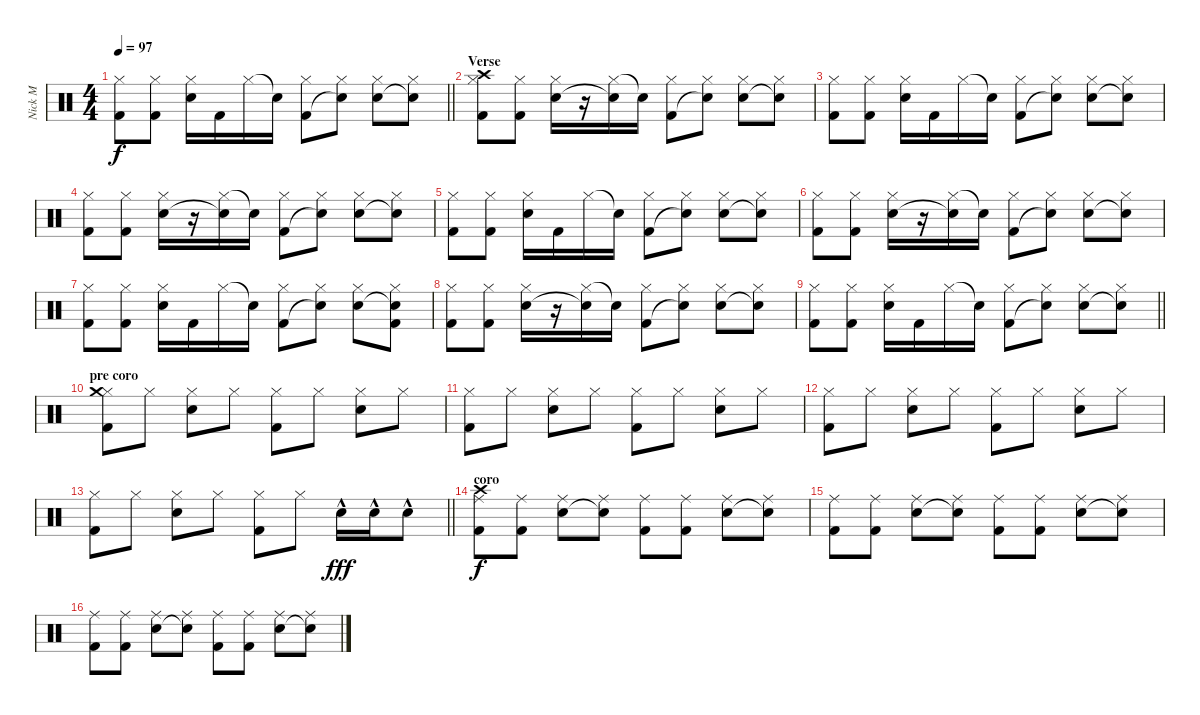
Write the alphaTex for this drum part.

\track ("Nick M" "Nick M") {instrument percussion}
\staff {score}
\articulation defaults
\ts (4 4)
\tempo 97
\clef neutral
\barLineRight lightlight
\ks c
("Hi-Hat (closed)" "Kick (hit) 2").8{dy f} ("Hi-Hat (closed)" "Kick (hit) 2").8 ("Hi-Hat (closed)" "Snare (hit) 2").16 "Kick (hit) 2".16 "Hi-Hat (closed)".16 "Snare (hit)"{t}.16 ("Hi-Hat (closed)" "Kick (hit) 2").8 ("Hi-Hat (closed)" "Snare (hit)"{t}).8 ("Hi-Hat (closed)" "Snare (hit) 2").8 ("Hi-Hat (closed)" "Snare (hit)"{t}).8 |
\section ("" "Verse")
("Hi-Hat (closed)" "Crash high (hit)" "Kick (hit) 2").8 ("Hi-Hat (closed)" "Kick (hit) 2").8 ("Hi-Hat (closed)" "Snare (hit) 2").16 r.16 ("Hi-Hat (closed)" "Snare (hit)"{t}).16 "Snare (hit)"{t}.16 ("Hi-Hat (closed)" "Kick (hit) 2").8 ("Hi-Hat (closed)" "Snare (hit)"{t}).8 ("Hi-Hat (closed)" "Snare (hit) 2").8 ("Hi-Hat (closed)" "Snare (hit)"{t}).8 |
("Hi-Hat (closed)" "Kick (hit) 2").8 ("Hi-Hat (closed)" "Kick (hit) 2").8 ("Hi-Hat (closed)" "Snare (hit) 2").16 "Kick (hit) 2".16 "Hi-Hat (closed)".16 "Snare (hit)"{t}.16 ("Hi-Hat (closed)" "Kick (hit) 2").8 ("Hi-Hat (closed)" "Snare (hit)"{t}).8 ("Hi-Hat (closed)" "Snare (hit) 2").8 ("Hi-Hat (closed)" "Snare (hit)"{t}).8 |
("Hi-Hat (closed)" "Kick (hit) 2").8 ("Hi-Hat (closed)" "Kick (hit) 2").8 ("Hi-Hat (closed)" "Snare (hit) 2").16 r.16 ("Hi-Hat (closed)" "Snare (hit)"{t}).16 "Snare (hit)"{t}.16 ("Hi-Hat (closed)" "Kick (hit) 2").8 ("Hi-Hat (closed)" "Snare (hit)"{t}).8 ("Hi-Hat (closed)" "Snare (hit) 2").8 ("Hi-Hat (closed)" "Snare (hit)"{t}).8 |
("Hi-Hat (closed)" "Kick (hit) 2").8 ("Hi-Hat (closed)" "Kick (hit) 2").8 ("Hi-Hat (closed)" "Snare (hit) 2").16 "Kick (hit) 2".16 "Hi-Hat (closed)".16 "Snare (hit)"{t}.16 ("Hi-Hat (closed)" "Kick (hit) 2").8 ("Hi-Hat (closed)" "Snare (hit)"{t}).8 ("Hi-Hat (closed)" "Snare (hit) 2").8 ("Hi-Hat (closed)" "Snare (hit)"{t}).8 |
("Hi-Hat (closed)" "Kick (hit) 2").8 ("Hi-Hat (closed)" "Kick (hit) 2").8 ("Hi-Hat (closed)" "Snare (hit) 2").16 r.16 ("Hi-Hat (closed)" "Snare (hit)"{t}).16 "Snare (hit)"{t}.16 ("Hi-Hat (closed)" "Kick (hit) 2").8 ("Hi-Hat (closed)" "Snare (hit)"{t}).8 ("Hi-Hat (closed)" "Snare (hit) 2").8 ("Hi-Hat (closed)" "Snare (hit)"{t}).8 |
("Hi-Hat (closed)" "Kick (hit) 2").8 ("Hi-Hat (closed)" "Kick (hit) 2").8 ("Hi-Hat (closed)" "Snare (hit) 2").16 "Kick (hit) 2".16 "Hi-Hat (closed)".16 "Snare (hit)"{t}.16 ("Hi-Hat (closed)" "Kick (hit) 2").8 ("Hi-Hat (closed)" "Snare (hit)"{t}).8 ("Hi-Hat (closed)" "Snare (hit) 2").8 ("Hi-Hat (closed)" "Snare (hit)"{t} "Kick (hit) 2").8 |
("Hi-Hat (closed)" "Kick (hit) 2").8 ("Hi-Hat (closed)" "Kick (hit) 2").8 ("Hi-Hat (closed)" "Snare (hit) 2").16 r.16 ("Hi-Hat (closed)" "Snare (hit)"{t}).16 "Snare (hit)"{t}.16 ("Hi-Hat (closed)" "Kick (hit) 2").8 ("Hi-Hat (closed)" "Snare (hit)"{t}).8 ("Hi-Hat (closed)" "Snare (hit) 2").8 ("Hi-Hat (closed)" "Snare (hit)"{t}).8 |
\barLineRight lightlight
("Hi-Hat (closed)" "Kick (hit) 2").8 ("Hi-Hat (closed)" "Kick (hit) 2").8 ("Hi-Hat (closed)" "Snare (hit) 2").16 "Kick (hit) 2".16 "Hi-Hat (closed)".16 "Snare (hit)"{t}.16 ("Hi-Hat (closed)" "Kick (hit) 2").8 ("Hi-Hat (closed)" "Snare (hit)"{t}).8 ("Hi-Hat (closed)" "Snare (hit) 2").8 ("Hi-Hat (closed)" "Snare (hit)"{t}).8 |
\section ("" "pre coro")
("Hi-Hat (closed)" "Crash medium (hit)" "Kick (hit) 2").8 "Hi-Hat (closed)".8 ("Hi-Hat (closed)" "Snare (hit) 2").8 "Hi-Hat (closed)".8 ("Hi-Hat (closed)" "Kick (hit) 2").8 "Hi-Hat (closed)".8 ("Hi-Hat (closed)" "Snare (hit) 2").8 "Hi-Hat (closed)".8 |
("Hi-Hat (closed)" "Kick (hit) 2").8 "Hi-Hat (closed)".8 ("Hi-Hat (closed)" "Snare (hit) 2").8 "Hi-Hat (closed)".8 ("Hi-Hat (closed)" "Kick (hit) 2").8 "Hi-Hat (closed)".8 ("Hi-Hat (closed)" "Snare (hit) 2").8 "Hi-Hat (closed)".8 |
("Hi-Hat (closed)" "Kick (hit) 2").8 "Hi-Hat (closed)".8 ("Hi-Hat (closed)" "Snare (hit) 2").8 "Hi-Hat (closed)".8 ("Hi-Hat (closed)" "Kick (hit) 2").8 "Hi-Hat (closed)".8 ("Hi-Hat (closed)" "Snare (hit) 2").8 "Hi-Hat (closed)".8 |
\barLineRight lightlight
("Hi-Hat (closed)" "Kick (hit) 2").8 "Hi-Hat (closed)".8 ("Hi-Hat (closed)" "Snare (hit) 2").8 "Hi-Hat (closed)".8 ("Hi-Hat (closed)" "Kick (hit) 2").8 "Hi-Hat (closed)".8 "Snare (hit) 2"{hac}.16{dy fff} "Snare (hit) 2"{hac}.16 "Snare (hit) 2"{hac}.8 |
\section ("" "coro")
("Ride (middle)" "Crash high (hit)" "Kick (hit) 2").8{dy f} ("Ride (middle)" "Kick (hit) 2").8 ("Ride (middle)" "Snare (hit) 2").8 ("Ride (middle)" "Snare (hit)"{t}).8 ("Ride (middle)" "Kick (hit) 2").8 ("Ride (middle)" "Kick (hit) 2").8 ("Ride (middle)" "Snare (hit) 2").8 ("Ride (middle)" "Snare (hit)"{t}).8 |
("Ride (middle)" "Kick (hit) 2").8 ("Ride (middle)" "Kick (hit) 2").8 ("Ride (middle)" "Snare (hit) 2").8 ("Ride (middle)" "Snare (hit)"{t}).8 ("Ride (middle)" "Kick (hit) 2").8 ("Ride (middle)" "Kick (hit) 2").8 ("Ride (middle)" "Snare (hit) 2").8 ("Ride (middle)" "Snare (hit)"{t}).8 |
("Ride (middle)" "Kick (hit) 2").8 ("Ride (middle)" "Kick (hit) 2").8 ("Ride (middle)" "Snare (hit) 2").8 ("Ride (middle)" "Snare (hit)"{t}).8 ("Ride (middle)" "Kick (hit) 2").8 ("Ride (middle)" "Kick (hit) 2").8 ("Ride (middle)" "Snare (hit) 2").8 ("Ride (middle)" "Snare (hit)"{t}).8
